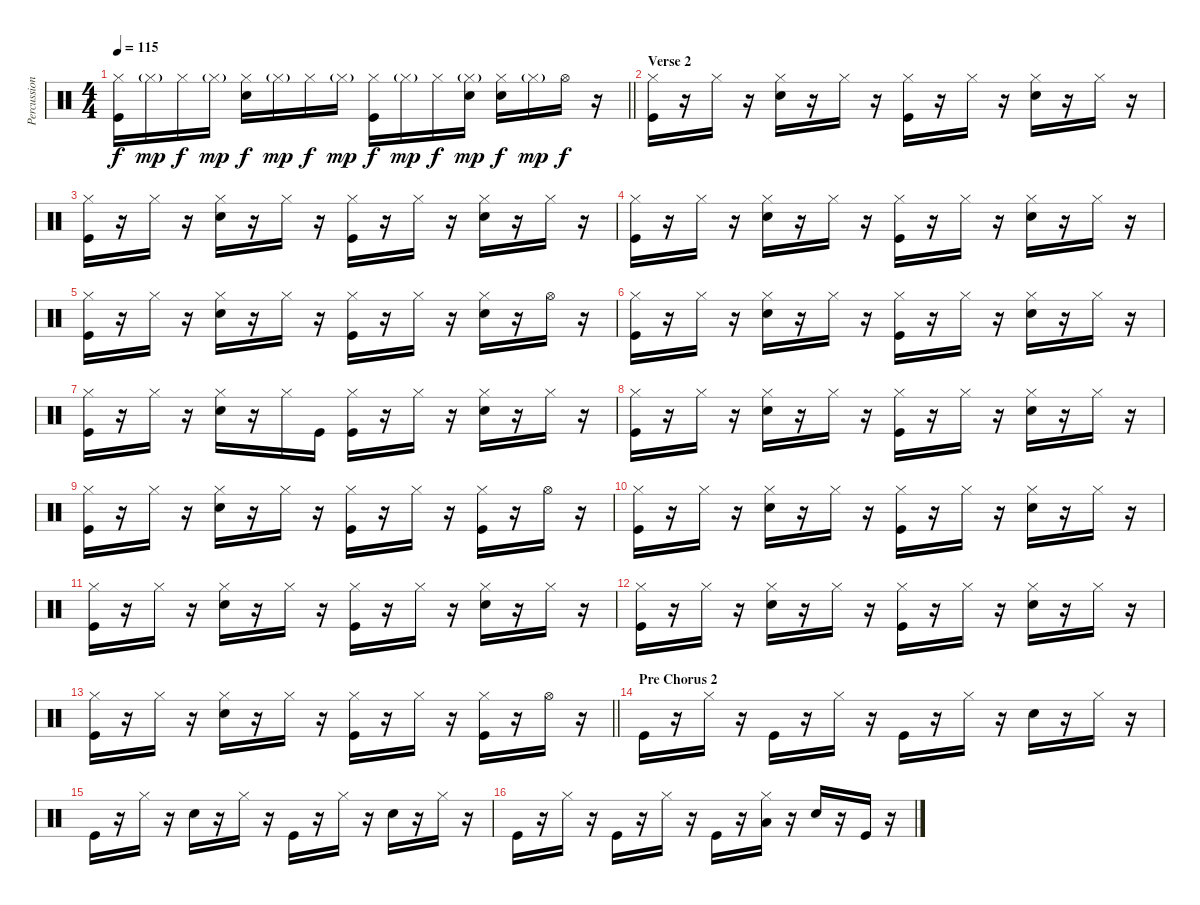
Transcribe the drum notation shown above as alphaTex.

\track ("Percussion" "Percussion") {instrument percussion bank 177}
\staff {score}
\articulation defaults
\ts (4 4)
\tempo 115
\clef neutral
\barLineRight lightlight
\ks c
("Hi-Hat (closed)" "Kick (hit)").16{dy f} "Hi-Hat (closed)"{g}.16{dy mp} "Hi-Hat (closed)".16{dy f} "Hi-Hat (closed)"{g}.16{dy mp} ("Hi-Hat (closed)" "Snare (hit) 2").16{dy f} "Hi-Hat (closed)"{g}.16{dy mp} "Hi-Hat (closed)".16{dy f} "Hi-Hat (closed)"{g}.16{dy mp} ("Hi-Hat (closed)" "Kick (hit)").16{dy f} "Hi-Hat (closed)"{g}.16{dy mp} "Hi-Hat (closed)".16{dy f} ("Hi-Hat (closed)"{g} "Snare (hit) 2").16{dy mp} ("Hi-Hat (closed)" "Snare (hit) 2").16{dy f} "Hi-Hat (closed)"{g}.16{dy mp} "Hi-Hat (open)".16{dy f} r.16 |
\section ("" "Verse 2")
("Hi-Hat (closed)" "Kick (hit)").16 r.16 "Hi-Hat (closed)".16 r.16 ("Hi-Hat (closed)" "Snare (hit) 2").16 r.16 "Hi-Hat (closed)".16 r.16 ("Hi-Hat (closed)" "Kick (hit)").16 r.16 "Hi-Hat (closed)".16 r.16 ("Hi-Hat (closed)" "Snare (hit) 2").16 r.16 "Hi-Hat (closed)".16 r.16 |
("Hi-Hat (closed)" "Kick (hit)").16 r.16 "Hi-Hat (closed)".16 r.16 ("Hi-Hat (closed)" "Snare (hit) 2").16 r.16 "Hi-Hat (closed)".16 r.16 ("Hi-Hat (closed)" "Kick (hit)").16 r.16 "Hi-Hat (closed)".16 r.16 ("Hi-Hat (closed)" "Snare (hit) 2").16 r.16 "Hi-Hat (closed)".16 r.16 |
("Hi-Hat (closed)" "Kick (hit)").16 r.16 "Hi-Hat (closed)".16 r.16 ("Hi-Hat (closed)" "Snare (hit) 2").16 r.16 "Hi-Hat (closed)".16 r.16 ("Hi-Hat (closed)" "Kick (hit)").16 r.16 "Hi-Hat (closed)".16 r.16 ("Hi-Hat (closed)" "Snare (hit) 2").16 r.16 "Hi-Hat (closed)".16 r.16 |
("Hi-Hat (closed)" "Kick (hit)").16 r.16 "Hi-Hat (closed)".16 r.16 ("Hi-Hat (closed)" "Snare (hit) 2").16 r.16 "Hi-Hat (closed)".16 r.16 ("Hi-Hat (closed)" "Kick (hit)").16 r.16 "Hi-Hat (closed)".16 r.16 ("Hi-Hat (closed)" "Snare (hit) 2").16 r.16 "Hi-Hat (open)".16 r.16 |
("Hi-Hat (closed)" "Kick (hit)").16 r.16 "Hi-Hat (closed)".16 r.16 ("Hi-Hat (closed)" "Snare (hit) 2").16 r.16 "Hi-Hat (closed)".16 r.16 ("Hi-Hat (closed)" "Kick (hit)").16 r.16 "Hi-Hat (closed)".16 r.16 ("Hi-Hat (closed)" "Snare (hit) 2").16 r.16 "Hi-Hat (closed)".16 r.16 |
("Hi-Hat (closed)" "Kick (hit)").16 r.16 "Hi-Hat (closed)".16 r.16 ("Hi-Hat (closed)" "Snare (hit) 2").16 r.16 "Hi-Hat (closed)".16 "Kick (hit)".16 ("Hi-Hat (closed)" "Kick (hit)").16 r.16 "Hi-Hat (closed)".16 r.16 ("Hi-Hat (closed)" "Snare (hit) 2").16 r.16 "Hi-Hat (closed)".16 r.16 |
("Hi-Hat (closed)" "Kick (hit)").16 r.16 "Hi-Hat (closed)".16 r.16 ("Hi-Hat (closed)" "Snare (hit) 2").16 r.16 "Hi-Hat (closed)".16 r.16 ("Hi-Hat (closed)" "Kick (hit)").16 r.16 "Hi-Hat (closed)".16 r.16 ("Hi-Hat (closed)" "Snare (hit) 2").16 r.16 "Hi-Hat (closed)".16 r.16 |
("Hi-Hat (closed)" "Kick (hit)").16 r.16 "Hi-Hat (closed)".16 r.16 ("Hi-Hat (closed)" "Snare (hit) 2").16 r.16 "Hi-Hat (closed)".16 r.16 ("Hi-Hat (closed)" "Kick (hit)").16 r.16 "Hi-Hat (closed)".16 r.16 ("Hi-Hat (closed)" "Kick (hit)").16 r.16 "Hi-Hat (open)".16 r.16 |
("Hi-Hat (closed)" "Kick (hit)").16 r.16 "Hi-Hat (closed)".16 r.16 ("Hi-Hat (closed)" "Snare (hit) 2").16 r.16 "Hi-Hat (closed)".16 r.16 ("Hi-Hat (closed)" "Kick (hit)").16 r.16 "Hi-Hat (closed)".16 r.16 ("Hi-Hat (closed)" "Snare (hit) 2").16 r.16 "Hi-Hat (closed)".16 r.16 |
("Hi-Hat (closed)" "Kick (hit)").16 r.16 "Hi-Hat (closed)".16 r.16 ("Hi-Hat (closed)" "Snare (hit) 2").16 r.16 "Hi-Hat (closed)".16 r.16 ("Hi-Hat (closed)" "Kick (hit)").16 r.16 "Hi-Hat (closed)".16 r.16 ("Hi-Hat (closed)" "Snare (hit) 2").16 r.16 "Hi-Hat (closed)".16 r.16 |
("Hi-Hat (closed)" "Kick (hit)").16 r.16 "Hi-Hat (closed)".16 r.16 ("Hi-Hat (closed)" "Snare (hit) 2").16 r.16 "Hi-Hat (closed)".16 r.16 ("Hi-Hat (closed)" "Kick (hit)").16 r.16 "Hi-Hat (closed)".16 r.16 ("Hi-Hat (closed)" "Snare (hit) 2").16 r.16 "Hi-Hat (closed)".16 r.16 |
\barLineRight lightlight
("Hi-Hat (closed)" "Kick (hit)").16 r.16 "Hi-Hat (closed)".16 r.16 ("Hi-Hat (closed)" "Snare (hit) 2").16 r.16 "Hi-Hat (closed)".16 r.16 ("Hi-Hat (closed)" "Kick (hit)").16 r.16 "Hi-Hat (closed)".16 r.16 ("Hi-Hat (closed)" "Kick (hit)").16 r.16 "Hi-Hat (open)".16 r.16 |
\section ("" "Pre Chorus 2")
"Kick (hit)".16 r.16 "Hi-Hat (closed)".16 r.16 "Kick (hit)".16 r.16 "Hi-Hat (closed)".16 r.16 "Kick (hit)".16 r.16 "Hi-Hat (closed)".16 r.16 "Snare (hit) 2".16 r.16 "Hi-Hat (closed)".16 r.16 |
"Kick (hit)".16 r.16 "Hi-Hat (closed)".16 r.16 "Snare (hit) 2".16 r.16 "Hi-Hat (closed)".16 r.16 "Kick (hit)".16 r.16 "Hi-Hat (closed)".16 r.16 "Snare (hit) 2".16 r.16 "Hi-Hat (closed)".16 r.16 |
"Kick (hit)".16 r.16 "Hi-Hat (closed)".16 r.16 "Kick (hit)".16 r.16 "Hi-Hat (closed)".16 r.16 "Kick (hit)".16 r.16 ("Hi-Hat (closed)" "Low Tom (hit)").16 r.16 "Snare (hit) 2".16 r.16 "Kick (hit)".16 r.16
